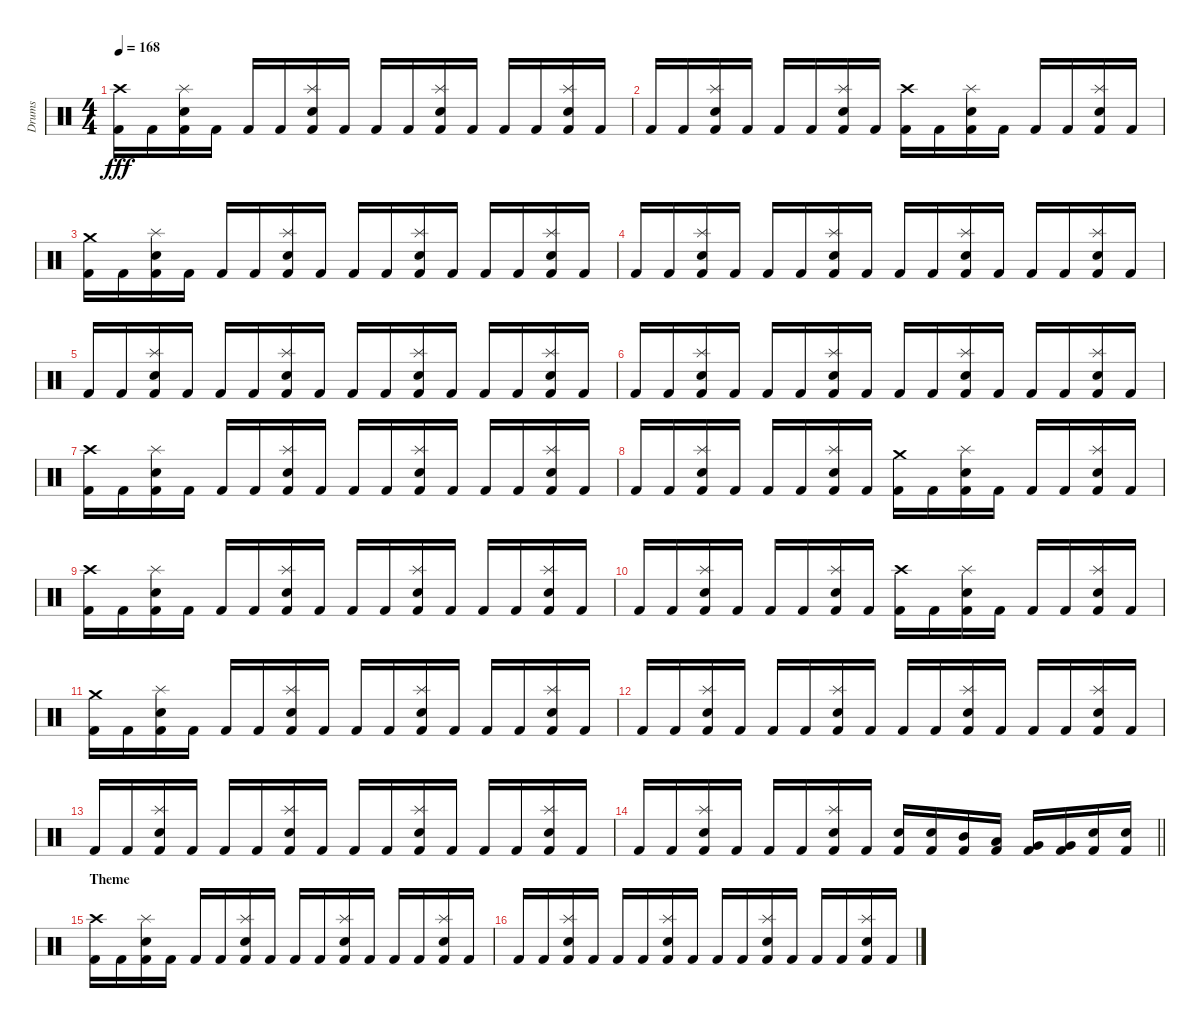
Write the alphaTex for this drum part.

\track ("Drums" "Drums") {instrument percussion}
\staff {score}
\articulation defaults
\ts (4 4)
\tempo 168
\clef neutral
\ks aminor
("Crash high (hit)" "Kick (hit) 2").16{dy fff} "Kick (hit) 2".16 ("Splash (hit)" "Snare (hit) 2" "Kick (hit) 2").16 "Kick (hit) 2".16 "Kick (hit) 2".16 "Kick (hit) 2".16 ("Splash (hit)" "Snare (hit) 2" "Kick (hit) 2").16 "Kick (hit) 2".16 "Kick (hit) 2".16 "Kick (hit) 2".16 ("Splash (hit)" "Snare (hit) 2" "Kick (hit) 2").16 "Kick (hit) 2".16 "Kick (hit) 2".16 "Kick (hit) 2".16 ("Splash (hit)" "Snare (hit) 2" "Kick (hit) 2").16 "Kick (hit) 2".16 |
"Kick (hit) 2".16 "Kick (hit) 2".16 ("Splash (hit)" "Snare (hit) 2" "Kick (hit) 2").16 "Kick (hit) 2".16 "Kick (hit) 2".16 "Kick (hit) 2".16 ("Splash (hit)" "Snare (hit) 2" "Kick (hit) 2").16 "Kick (hit) 2".16 ("Crash high (hit)" "Kick (hit) 2").16 "Kick (hit) 2".16 ("Splash (hit)" "Snare (hit) 2" "Kick (hit) 2").16 "Kick (hit) 2".16 "Kick (hit) 2".16 "Kick (hit) 2".16 ("Splash (hit)" "Snare (hit) 2" "Kick (hit) 2").16 "Kick (hit) 2".16 |
("Crash medium (hit)" "Kick (hit) 2").16 "Kick (hit) 2".16 ("Splash (hit)" "Snare (hit) 2" "Kick (hit) 2").16 "Kick (hit) 2".16 "Kick (hit) 2".16 "Kick (hit) 2".16 ("Splash (hit)" "Snare (hit) 2" "Kick (hit) 2").16 "Kick (hit) 2".16 "Kick (hit) 2".16 "Kick (hit) 2".16 ("Splash (hit)" "Snare (hit) 2" "Kick (hit) 2").16 "Kick (hit) 2".16 "Kick (hit) 2".16 "Kick (hit) 2".16 ("Splash (hit)" "Snare (hit) 2" "Kick (hit) 2").16 "Kick (hit) 2".16 |
"Kick (hit) 2".16 "Kick (hit) 2".16 ("Splash (hit)" "Snare (hit) 2" "Kick (hit) 2").16 "Kick (hit) 2".16 "Kick (hit) 2".16 "Kick (hit) 2".16 ("Splash (hit)" "Snare (hit) 2" "Kick (hit) 2").16 "Kick (hit) 2".16 "Kick (hit) 2".16 "Kick (hit) 2".16 ("Splash (hit)" "Snare (hit) 2" "Kick (hit) 2").16 "Kick (hit) 2".16 "Kick (hit) 2".16 "Kick (hit) 2".16 ("Splash (hit)" "Snare (hit) 2" "Kick (hit) 2").16 "Kick (hit) 2".16 |
"Kick (hit) 2".16 "Kick (hit) 2".16 ("Splash (hit)" "Snare (hit) 2" "Kick (hit) 2").16 "Kick (hit) 2".16 "Kick (hit) 2".16 "Kick (hit) 2".16 ("Splash (hit)" "Snare (hit) 2" "Kick (hit) 2").16 "Kick (hit) 2".16 "Kick (hit) 2".16 "Kick (hit) 2".16 ("Splash (hit)" "Snare (hit) 2" "Kick (hit) 2").16 "Kick (hit) 2".16 "Kick (hit) 2".16 "Kick (hit) 2".16 ("Splash (hit)" "Snare (hit) 2" "Kick (hit) 2").16 "Kick (hit) 2".16 |
"Kick (hit) 2".16 "Kick (hit) 2".16 ("Splash (hit)" "Snare (hit) 2" "Kick (hit) 2").16 "Kick (hit) 2".16 "Kick (hit) 2".16 "Kick (hit) 2".16 ("Splash (hit)" "Snare (hit) 2" "Kick (hit) 2").16 "Kick (hit) 2".16 "Kick (hit) 2".16 "Kick (hit) 2".16 ("Splash (hit)" "Snare (hit) 2" "Kick (hit) 2").16 "Kick (hit) 2".16 "Kick (hit) 2".16 "Kick (hit) 2".16 ("Splash (hit)" "Snare (hit) 2" "Kick (hit) 2").16 "Kick (hit) 2".16 |
("Crash high (hit)" "Kick (hit) 2").16 "Kick (hit) 2".16 ("Splash (hit)" "Snare (hit) 2" "Kick (hit) 2").16 "Kick (hit) 2".16 "Kick (hit) 2".16 "Kick (hit) 2".16 ("Splash (hit)" "Snare (hit) 2" "Kick (hit) 2").16 "Kick (hit) 2".16 "Kick (hit) 2".16 "Kick (hit) 2".16 ("Splash (hit)" "Snare (hit) 2" "Kick (hit) 2").16 "Kick (hit) 2".16 "Kick (hit) 2".16 "Kick (hit) 2".16 ("Splash (hit)" "Snare (hit) 2" "Kick (hit) 2").16 "Kick (hit) 2".16 |
"Kick (hit) 2".16 "Kick (hit) 2".16 ("Splash (hit)" "Snare (hit) 2" "Kick (hit) 2").16 "Kick (hit) 2".16 "Kick (hit) 2".16 "Kick (hit) 2".16 ("Splash (hit)" "Snare (hit) 2" "Kick (hit) 2").16 "Kick (hit) 2".16 ("Crash medium (hit)" "Kick (hit) 2").16 "Kick (hit) 2".16 ("Splash (hit)" "Snare (hit) 2" "Kick (hit) 2").16 "Kick (hit) 2".16 "Kick (hit) 2".16 "Kick (hit) 2".16 ("Splash (hit)" "Snare (hit) 2" "Kick (hit) 2").16 "Kick (hit) 2".16 |
("Crash high (hit)" "Kick (hit) 2").16 "Kick (hit) 2".16 ("Splash (hit)" "Snare (hit) 2" "Kick (hit) 2").16 "Kick (hit) 2".16 "Kick (hit) 2".16 "Kick (hit) 2".16 ("Splash (hit)" "Snare (hit) 2" "Kick (hit) 2").16 "Kick (hit) 2".16 "Kick (hit) 2".16 "Kick (hit) 2".16 ("Splash (hit)" "Snare (hit) 2" "Kick (hit) 2").16 "Kick (hit) 2".16 "Kick (hit) 2".16 "Kick (hit) 2".16 ("Splash (hit)" "Snare (hit) 2" "Kick (hit) 2").16 "Kick (hit) 2".16 |
"Kick (hit) 2".16 "Kick (hit) 2".16 ("Splash (hit)" "Snare (hit) 2" "Kick (hit) 2").16 "Kick (hit) 2".16 "Kick (hit) 2".16 "Kick (hit) 2".16 ("Splash (hit)" "Snare (hit) 2" "Kick (hit) 2").16 "Kick (hit) 2".16 ("Crash high (hit)" "Kick (hit) 2").16 "Kick (hit) 2".16 ("Splash (hit)" "Snare (hit) 2" "Kick (hit) 2").16 "Kick (hit) 2".16 "Kick (hit) 2".16 "Kick (hit) 2".16 ("Splash (hit)" "Snare (hit) 2" "Kick (hit) 2").16 "Kick (hit) 2".16 |
("Crash medium (hit)" "Kick (hit) 2").16 "Kick (hit) 2".16 ("Splash (hit)" "Snare (hit) 2" "Kick (hit) 2").16 "Kick (hit) 2".16 "Kick (hit) 2".16 "Kick (hit) 2".16 ("Splash (hit)" "Snare (hit) 2" "Kick (hit) 2").16 "Kick (hit) 2".16 "Kick (hit) 2".16 "Kick (hit) 2".16 ("Splash (hit)" "Snare (hit) 2" "Kick (hit) 2").16 "Kick (hit) 2".16 "Kick (hit) 2".16 "Kick (hit) 2".16 ("Splash (hit)" "Snare (hit) 2" "Kick (hit) 2").16 "Kick (hit) 2".16 |
"Kick (hit) 2".16 "Kick (hit) 2".16 ("Splash (hit)" "Snare (hit) 2" "Kick (hit) 2").16 "Kick (hit) 2".16 "Kick (hit) 2".16 "Kick (hit) 2".16 ("Splash (hit)" "Snare (hit) 2" "Kick (hit) 2").16 "Kick (hit) 2".16 "Kick (hit) 2".16 "Kick (hit) 2".16 ("Splash (hit)" "Snare (hit) 2" "Kick (hit) 2").16 "Kick (hit) 2".16 "Kick (hit) 2".16 "Kick (hit) 2".16 ("Splash (hit)" "Snare (hit) 2" "Kick (hit) 2").16 "Kick (hit) 2".16 |
"Kick (hit) 2".16 "Kick (hit) 2".16 ("Splash (hit)" "Snare (hit) 2" "Kick (hit) 2").16 "Kick (hit) 2".16 "Kick (hit) 2".16 "Kick (hit) 2".16 ("Splash (hit)" "Snare (hit) 2" "Kick (hit) 2").16 "Kick (hit) 2".16 "Kick (hit) 2".16 "Kick (hit) 2".16 ("Splash (hit)" "Snare (hit) 2" "Kick (hit) 2").16 "Kick (hit) 2".16 "Kick (hit) 2".16 "Kick (hit) 2".16 ("Splash (hit)" "Snare (hit) 2" "Kick (hit) 2").16 "Kick (hit) 2".16 |
\barLineRight lightlight "Kick (hit) 2".16 "Kick (hit) 2".16
("Splash (hit)" "Snare (hit) 2" "Kick (hit) 2").16 "Kick (hit) 2".16 "Kick (hit) 2".16 "Kick (hit) 2".16 ("Splash (hit)" "Snare (hit) 2" "Kick (hit) 2").16 "Kick (hit) 2".16 ("Snare (hit) 2" "Kick (hit) 2").16 ("Snare (hit) 2" "Kick (hit) 2").16 ("Mid Tom (hit)" "Kick (hit) 2").16 ("Low Tom (hit)" "Kick (hit) 2").16 ("Very Low Tom (hit)" "Kick (hit) 2").16 ("Very Low Tom (hit)" "Kick (hit) 2").16 ("Snare (hit) 2" "Kick (hit) 2").16 ("Snare (hit) 2" "Kick (hit) 2").16 |
\section ("" "Theme")
("Crash high (hit)" "Kick (hit) 2").16 "Kick (hit) 2".16 ("Splash (hit)" "Snare (hit) 2" "Kick (hit) 2").16 "Kick (hit) 2".16 "Kick (hit) 2".16 "Kick (hit) 2".16 ("Splash (hit)" "Snare (hit) 2" "Kick (hit) 2").16 "Kick (hit) 2".16 "Kick (hit) 2".16 "Kick (hit) 2".16 ("Splash (hit)" "Snare (hit) 2" "Kick (hit) 2").16 "Kick (hit) 2".16 "Kick (hit) 2".16 "Kick (hit) 2".16 ("Splash (hit)" "Snare (hit) 2" "Kick (hit) 2").16 "Kick (hit) 2".16 |
"Kick (hit) 2".16 "Kick (hit) 2".16 ("Splash (hit)" "Snare (hit) 2" "Kick (hit) 2").16 "Kick (hit) 2".16 "Kick (hit) 2".16 "Kick (hit) 2".16 ("Splash (hit)" "Snare (hit) 2" "Kick (hit) 2").16 "Kick (hit) 2".16 "Kick (hit) 2".16 "Kick (hit) 2".16 ("Splash (hit)" "Snare (hit) 2" "Kick (hit) 2").16 "Kick (hit) 2".16 "Kick (hit) 2".16 "Kick (hit) 2".16 ("Splash (hit)" "Snare (hit) 2" "Kick (hit) 2").16 "Kick (hit) 2".16
